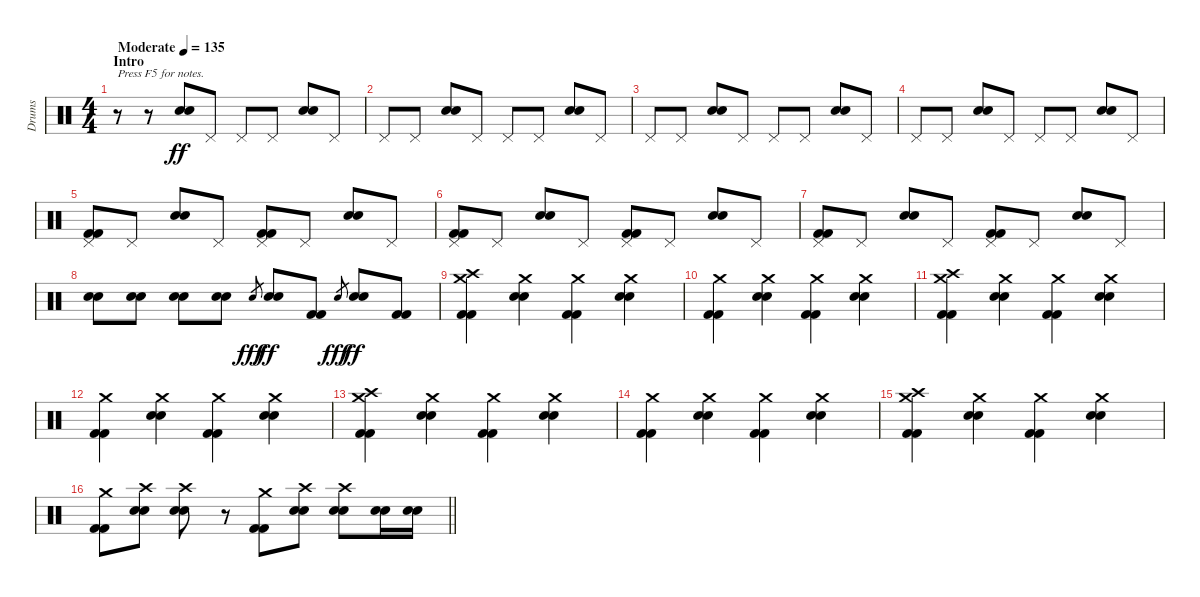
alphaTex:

\track ("Drums" "Drums") {instrument percussion}
\staff {score}
\articulation defaults
\ts (4 4)
\section ("" "Intro")
\tempo (135 "Moderate")
\clef neutral
\ks c
r.8{txt "Press F5 for notes." dy ff} r.8 ("Hand Clap (hit)" "Electric Snare (hit)").8 "Pedal Hi-Hat (hit)".8 "Pedal Hi-Hat (hit)".8 "Pedal Hi-Hat (hit)".8 ("Hand Clap (hit)" "Electric Snare (hit)").8 "Pedal Hi-Hat (hit)".8 |
"Pedal Hi-Hat (hit)".8 "Pedal Hi-Hat (hit)".8 ("Hand Clap (hit)" "Electric Snare (hit)").8 "Pedal Hi-Hat (hit)".8 "Pedal Hi-Hat (hit)".8 "Pedal Hi-Hat (hit)".8 ("Hand Clap (hit)" "Electric Snare (hit)").8 "Pedal Hi-Hat (hit)".8 |
"Pedal Hi-Hat (hit)".8 "Pedal Hi-Hat (hit)".8 ("Hand Clap (hit)" "Electric Snare (hit)").8 "Pedal Hi-Hat (hit)".8 "Pedal Hi-Hat (hit)".8 "Pedal Hi-Hat (hit)".8 ("Hand Clap (hit)" "Electric Snare (hit)").8 "Pedal Hi-Hat (hit)".8 |
"Pedal Hi-Hat (hit)".8 "Pedal Hi-Hat (hit)".8 ("Hand Clap (hit)" "Electric Snare (hit)").8 "Pedal Hi-Hat (hit)".8 "Pedal Hi-Hat (hit)".8 "Pedal Hi-Hat (hit)".8 ("Hand Clap (hit)" "Electric Snare (hit)").8 "Pedal Hi-Hat (hit)".8 |
("Pedal Hi-Hat (hit)" "Kick (hit) 2" "Kick (hit) 2").8 "Pedal Hi-Hat (hit)".8 ("Hand Clap (hit)" "Electric Snare (hit)").8 "Pedal Hi-Hat (hit)".8 ("Pedal Hi-Hat (hit)" "Kick (hit) 2" "Kick (hit) 2").8 "Pedal Hi-Hat (hit)".8 ("Hand Clap (hit)" "Electric Snare (hit)").8 "Pedal Hi-Hat (hit)".8 |
("Pedal Hi-Hat (hit)" "Kick (hit) 2" "Kick (hit) 2").8 "Pedal Hi-Hat (hit)".8 ("Hand Clap (hit)" "Electric Snare (hit)").8 "Pedal Hi-Hat (hit)".8 ("Pedal Hi-Hat (hit)" "Kick (hit) 2" "Kick (hit) 2").8 "Pedal Hi-Hat (hit)".8 ("Hand Clap (hit)" "Electric Snare (hit)").8 "Pedal Hi-Hat (hit)".8 |
("Pedal Hi-Hat (hit)" "Kick (hit) 2" "Kick (hit) 2").8 "Pedal Hi-Hat (hit)".8 ("Hand Clap (hit)" "Electric Snare (hit)").8 "Pedal Hi-Hat (hit)".8 ("Pedal Hi-Hat (hit)" "Kick (hit) 2" "Kick (hit) 2").8 "Pedal Hi-Hat (hit)".8 ("Hand Clap (hit)" "Electric Snare (hit)").8 "Pedal Hi-Hat (hit)".8 |
("Electric Snare (hit)" "Electric Snare (hit)").8 ("Electric Snare (hit)" "Electric Snare (hit)").8 ("Electric Snare (hit)" "Electric Snare (hit)").8 ("Electric Snare (hit)" "Electric Snare (hit)").8 "Electric Snare (hit)".8{gr dy fff} ("Electric Snare (hit)" "Electric Snare (hit)").8{dy ff} ("Kick (hit) 2" "Kick (hit) 2").8 "Electric Snare (hit)".8{gr dy fff} ("Electric Snare (hit)" "Electric Snare (hit)").8{dy ff} ("Kick (hit) 2" "Kick (hit) 2").8 |
("Crash high (hit)" "Crash medium (hit)" "Kick (hit) 2" "Kick (hit) 2").4 ("Crash medium (hit)" "Electric Snare (hit)" "Electric Snare (hit)").4 ("Crash medium (hit)" "Kick (hit) 2" "Kick (hit) 2").4 ("Crash medium (hit)" "Electric Snare (hit)" "Electric Snare (hit)").4 |
("Crash medium (hit)" "Kick (hit) 2" "Kick (hit) 2").4 ("Crash medium (hit)" "Electric Snare (hit)" "Electric Snare (hit)").4 ("Crash medium (hit)" "Kick (hit) 2" "Kick (hit) 2").4 ("Crash medium (hit)" "Electric Snare (hit)" "Electric Snare (hit)").4 |
("Crash high (hit)" "Crash medium (hit)" "Kick (hit) 2" "Kick (hit) 2").4 ("Crash medium (hit)" "Electric Snare (hit)" "Electric Snare (hit)").4 ("Crash medium (hit)" "Kick (hit) 2" "Kick (hit) 2").4 ("Crash medium (hit)" "Electric Snare (hit)" "Electric Snare (hit)").4 |
("Crash medium (hit)" "Kick (hit) 2" "Kick (hit) 2").4 ("Crash medium (hit)" "Electric Snare (hit)" "Electric Snare (hit)").4 ("Crash medium (hit)" "Kick (hit) 2" "Kick (hit) 2").4 ("Crash medium (hit)" "Electric Snare (hit)" "Electric Snare (hit)").4 |
("Crash high (hit)" "Crash medium (hit)" "Kick (hit) 2" "Kick (hit) 2").4 ("Crash medium (hit)" "Electric Snare (hit)" "Electric Snare (hit)").4 ("Crash medium (hit)" "Kick (hit) 2" "Kick (hit) 2").4 ("Crash medium (hit)" "Electric Snare (hit)" "Electric Snare (hit)").4 |
("Crash medium (hit)" "Kick (hit) 2" "Kick (hit) 2").4 ("Crash medium (hit)" "Electric Snare (hit)" "Electric Snare (hit)").4 ("Crash medium (hit)" "Kick (hit) 2" "Kick (hit) 2").4 ("Crash medium (hit)" "Electric Snare (hit)" "Electric Snare (hit)").4 |
("Crash high (hit)" "Crash medium (hit)" "Kick (hit) 2" "Kick (hit) 2").4 ("Crash medium (hit)" "Electric Snare (hit)" "Electric Snare (hit)").4 ("Crash medium (hit)" "Kick (hit) 2" "Kick (hit) 2").4 ("Crash medium (hit)" "Electric Snare (hit)" "Electric Snare (hit)").4 |
\barLineRight lightlight
("Crash medium (hit)" "Kick (hit) 2" "Kick (hit) 2").8 ("Crash high (hit)" "Electric Snare (hit)" "Electric Snare (hit)").8 ("Crash high (hit)" "Electric Snare (hit)" "Electric Snare (hit)").8 r.8 ("Crash medium (hit)" "Kick (hit) 2" "Kick (hit) 2").8 ("Crash high (hit)" "Electric Snare (hit)" "Electric Snare (hit)").8 ("Crash high (hit)" "Electric Snare (hit)" "Electric Snare (hit)").8 ("Electric Snare (hit)" "Electric Snare (hit)").16 ("Electric Snare (hit)" "Electric Snare (hit)").16
